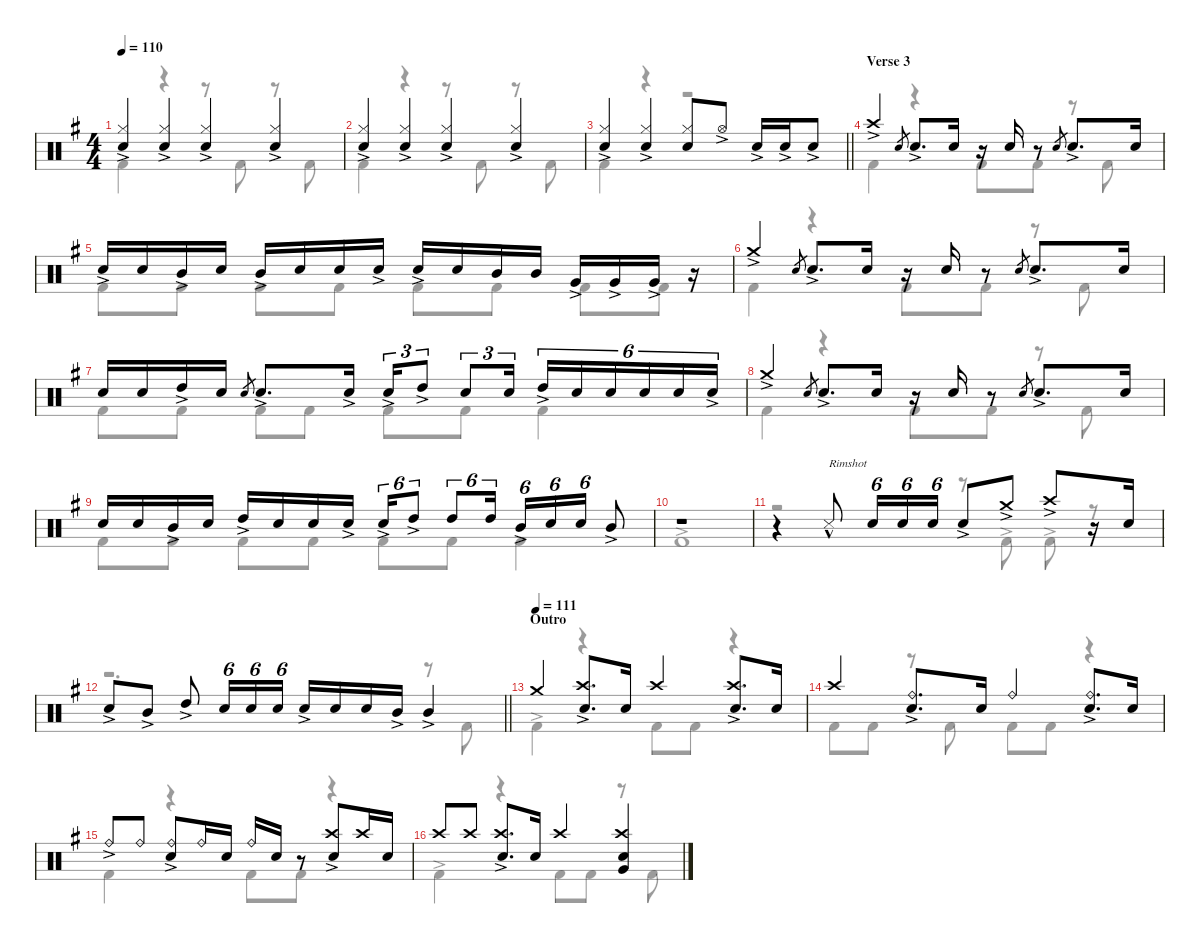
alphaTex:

\defaultSystemsLayout 4
\hideDynamics
\bracketExtendMode nobrackets
\singleTrackTrackNamePolicy hidden
\multiTrackTrackNamePolicy hidden
\firstSystemTrackNameMode fullname
\firstSystemTrackNameOrientation horizontal
\otherSystemsTrackNameOrientation horizontal
\track ("Drums: Mitch Mitchell" "drm.") {defaultSystemsLayout 4 instrument percussion}
\staff {score}
\articulation defaults
\voice
\ts (4 4)
\tempo 110
\clef neutral
\ks g
("Hi-Hat (closed)"{ac acc forcenatural} "Snare (hit) 2"{acc forcenatural}).4{dy mf beam Up} ("Hi-Hat (closed)"{ac acc forcenatural} "Snare (hit) 2"{acc forcenatural}).4{beam Up} ("Hi-Hat (closed)"{ac acc forcenatural} "Snare (hit) 2"{acc forcenatural}).4{beam Up} ("Hi-Hat (closed)"{ac acc forcenatural} "Snare (hit) 2"{acc forcenatural}).4{beam Up} |
("Hi-Hat (closed)"{ac acc forcenatural} "Snare (hit) 2"{acc forcenatural}).4{beam Up} ("Hi-Hat (closed)"{ac acc forcenatural} "Snare (hit) 2"{acc forcenatural}).4{beam Up} ("Hi-Hat (closed)"{ac acc forcenatural} "Snare (hit) 2"{acc forcenatural}).4{beam Up} ("Hi-Hat (closed)"{ac acc forcenatural} "Snare (hit) 2"{acc forcenatural}).4{beam Up} |
\barLineRight lightlight
("Hi-Hat (closed)"{ac acc forcenatural} "Snare (hit) 2"{acc forcenatural}).4{beam Up} ("Hi-Hat (closed)"{ac acc forcenatural} "Snare (hit) 2"{acc forcenatural}).4{beam Up} ("Hi-Hat (closed)"{acc forcenatural} "Snare (hit) 2"{acc forcenatural}).8{beam Up} "Hi-Hat (open)"{ac acc forcenatural}.8{beam Up} "Snare (hit) 2"{ac acc forcenatural}.16{beam Up} "Snare (hit) 2"{ac acc forcenatural}.16{beam Up} "Snare (hit) 2"{ac acc forcenatural}.8{beam Up} |
\section ("" "Verse 3")
"Crash high (hit)"{ac acc forcenatural}.4{beam Up} "Snare (hit) 2"{acc forcenatural}.8{gr beam Up} "Snare (hit) 2"{ac acc forcenatural}.8{d beam Up} "Snare (hit) 2"{acc forcenatural}.16{beam Up} r.16{beam Up} "Snare (hit) 2"{acc forcenatural}.16{beam Up} r.8{beam Up} "Snare (hit) 2"{acc forcenatural}.8{gr beam Up} "Snare (hit) 2"{ac acc forcenatural}.8{d beam Up} "Snare (hit) 2"{acc forcenatural}.16{beam Up} |
"Snare (hit) 2"{ac acc forcenatural}.16{beam Up} "Snare (hit) 2"{acc forcenatural}.16{beam Up} "Mid Tom (hit)"{ac acc forcenatural}.16{beam Up} "Snare (hit) 2"{acc forcenatural}.16{beam Up} "Mid Tom (hit)"{ac acc forcenatural}.16{beam Up} "Snare (hit) 2"{acc forcenatural}.16{beam Up} "Snare (hit) 2"{acc forcenatural}.16{beam Up} "Snare (hit) 2"{ac acc forcenatural}.16{beam Up} "Snare (hit) 2"{ac acc forcenatural}.16{beam Up} "Snare (hit) 2"{acc forcenatural}.16{beam Up} "Mid Tom (hit)"{acc forcenatural}.16{beam Up} "Mid Tom (hit)"{acc forcenatural}.16{beam Up} "Very Low Tom (hit)"{ac acc forcenatural}.16{beam Up} "Very Low Tom (hit)"{ac acc forcenatural}.16{beam Up} "Very Low Tom (hit)"{ac acc forcenatural}.16{beam Up} r.16{beam Up} |
"Crash medium (hit)"{ac acc forcenatural}.4{beam Up} "Snare (hit) 2"{acc forcenatural}.8{gr beam Up} "Snare (hit) 2"{ac acc forcenatural}.8{d beam Up} "Snare (hit) 2"{acc forcenatural}.16{beam Up} r.16{beam Up} "Snare (hit) 2"{acc forcenatural}.16{beam Up} r.8{beam Up} "Snare (hit) 2"{acc forcenatural}.8{gr beam Up} "Snare (hit) 2"{ac acc forcenatural}.8{d beam Up} "Snare (hit) 2"{acc forcenatural}.16{beam Up} |
"Snare (hit) 2"{acc forcenatural}.16{beam Up} "Snare (hit) 2"{acc forcenatural}.16{beam Up} "High Tom (hit)"{ac acc forcenatural}.16{beam Up} "Snare (hit) 2"{acc forcenatural}.16{beam Up} "Snare (hit) 2"{acc forcenatural}.8{gr beam Up} "Snare (hit) 2"{ac acc forcenatural}.8{d beam Up} "Snare (hit) 2"{ac acc forcenatural}.16{beam Up} "Snare (hit) 2"{ac acc forcenatural}.16{tu (3 2) beam Up} "High Tom (hit)"{ac acc forcenatural}.8{tu (3 2) beam Up} "Snare (hit) 2"{acc forcenatural}.8{tu (3 2) beam Up} "Snare (hit) 2"{acc forcenatural}.16{tu (3 2) beam Up} "High Tom (hit)"{ac acc forcenatural}.16{tu (6 4) beam Up} "Snare (hit) 2"{acc forcenatural}.16{tu (6 4) beam Up} "Snare (hit) 2"{acc forcenatural}.16{tu (6 4) beam Up} "Snare (hit) 2"{acc forcenatural}.16{tu (6 4) beam Up} "Snare (hit) 2"{acc forcenatural}.16{tu (6 4) beam Up} "Snare (hit) 2"{ac acc forcenatural}.16{tu (6 4) beam Up} |
"Crash medium (hit)"{ac acc forcenatural}.4{beam Up} "Snare (hit) 2"{acc forcenatural}.8{gr beam Up} "Snare (hit) 2"{ac acc forcenatural}.8{d beam Up} "Snare (hit) 2"{acc forcenatural}.16{beam Up} r.16{beam Up} "Snare (hit) 2"{acc forcenatural}.16{beam Up} r.8{beam Up} "Snare (hit) 2"{acc forcenatural}.8{gr beam Up} "Snare (hit) 2"{ac acc forcenatural}.8{d beam Up} "Snare (hit) 2"{acc forcenatural}.16{beam Up} |
"Snare (hit) 2"{acc forcenatural}.16{beam Up} "Snare (hit) 2"{acc forcenatural}.16{beam Up} "Mid Tom (hit)"{ac acc forcenatural}.16{beam Up} "Snare (hit) 2"{acc forcenatural}.16{beam Up} "High Tom (hit)"{ac acc forcenatural}.16{beam Up} "Snare (hit) 2"{acc forcenatural}.16{beam Up} "Snare (hit) 2"{acc forcenatural}.16{beam Up} "Snare (hit) 2"{ac acc forcenatural}.16{beam Up} "Snare (hit) 2"{ac acc forcenatural}.16{tu (6 4) beam Up} "High Tom (hit)"{ac acc forcenatural}.8{tu (6 4) beam Up} "High Tom (hit)"{acc forcenatural}.8{tu (6 4) beam Up} "High Tom (hit)"{acc forcenatural}.16{tu (6 4) beam Up} "Mid Tom (hit)"{ac acc forcenatural}.16{tu (6 4) beam Up} "Snare (hit) 2"{acc forcenatural}.16{tu (6 4) beam Up} "Snare (hit) 2"{acc forcenatural}.16{tu (6 4) beam Up} "Mid Tom (hit)"{ac acc forcenatural}.8{beam Up} |
r.1{beam Up} |
r.4{beam Up} "Snare (side stick) 3"{hac acc forcenatural}.8{txt "Rimshot" beam Up} "Snare (hit) 2"{acc forcenatural}.16{tu (6 4) beam Up} "Snare (hit) 2"{acc forcenatural}.16{tu (6 4) beam Up} "Snare (hit) 2"{acc forcenatural}.16{tu (6 4) beam Up} "Snare (hit) 2"{ac acc forcenatural}.8{beam Up} "Crash medium (hit)"{ac acc forcenatural}.8{beam Up} "Crash high (hit)"{ac acc forcenatural}.8{beam Up} r.16{beam Up} "Snare (hit) 2"{acc forcenatural}.16{beam Up} |
\barLineRight lightlight "Snare (hit) 2"{ac acc forcenatural}.8{beam Up} "Mid Tom (hit)"{ac acc forcenatural}.8{beam Up} "High Tom (hit)"{ac acc forcenatural}.8{beam Up} "Snare (hit) 2"{acc forcenatural}.16{tu (6 4) beam Up} "Snare (hit) 2"{acc forcenatural}.16{tu (6 4) beam Up} "Snare (hit) 2"{acc forcenatural}.16{tu (6 4) beam Up} "Snare (hit) 2"{ac acc forcenatural}.16{beam Up} "Snare (hit) 2"{acc forcenatural}.16{beam Up} "Snare (hit) 2"{acc forcenatural}.16{beam Up} "Mid Tom (hit)"{ac acc forcenatural}.16{beam Up} "Mid Tom (hit)"{ac acc forcenatural}.4{beam Up}
|
\section ("" "Outro")
\tempo (111)
"Crash medium (hit)"{acc forcenatural}.4{beam Up} ("Crash high (hit)"{acc forcenatural} "Snare (hit) 2"{ac acc forcenatural}).8{d beam Up} "Snare (hit) 2"{acc forcenatural}.16{beam Up} "Crash high (hit)"{acc forcenatural}.4{beam Up} ("Crash high (hit)"{acc forcenatural} "Snare (hit) 2"{ac acc forcenatural}).8{d beam Up} "Snare (hit) 2"{acc forcenatural}.16{beam Up} |
"Crash high (hit)"{acc forcenatural}.4{beam Up} ("Ride (bell)"{acc forcenatural} "Snare (hit) 2"{ac acc forcenatural}).8{d beam Up} "Snare (hit) 2"{acc forcenatural}.16{beam Up} "Ride (bell)"{acc forcenatural}.4{beam Up} ("Ride (bell)"{acc forcenatural} "Snare (hit) 2"{ac acc forcenatural}).8{d beam Up} "Snare (hit) 2"{acc forcenatural}.16{beam Up} |
"Ride (bell)"{ac acc forcenatural}.8{beam Up} "Ride (bell)"{acc forcenatural}.8{beam Up} ("Ride (bell)"{acc forcenatural} "Snare (hit) 2"{ac acc forcenatural}).8{beam Up} "Ride (bell)"{acc forcenatural}.16{beam Up} "Snare (hit) 2"{acc forcenatural}.16{beam Up} "Ride (bell)"{acc forcenatural}.16{beam Up} "Snare (hit) 2"{acc forcenatural}.16{beam Up} r.8{beam Up} ("Crash high (hit)"{acc forcenatural} "Snare (hit) 2"{ac acc forcenatural}).8{beam Up} "Crash high (hit)"{acc forcenatural}.16{beam Up} "Snare (hit) 2"{acc forcenatural}.16{beam Up} |
"Crash high (hit)"{acc forcenatural}.8{beam Up} "Crash high (hit)"{acc forcenatural}.8{beam Up} ("Crash high (hit)"{acc forcenatural} "Snare (hit) 2"{ac acc forcenatural}).8{d beam Up} "Snare (hit) 2"{acc forcenatural}.16{beam Up} "Crash high (hit)"{acc forcenatural}.4{beam Up} ("Crash high (hit)"{acc forcenatural} "Snare (hit) 2"{acc forcenatural} "Very Low Tom (hit)"{acc forcenatural}).4{beam Up}
\voice
\clef neutral
\ottava regular
\simile none
\ks g "Kick (hit) 2"{acc forcenatural}.4{dy mf beam Down}
r.4{beam Down} r.8{beam Down} "Kick (hit) 2"{acc forcenatural}.8{beam Down} r.8{beam Down} "Kick (hit) 2"{acc forcenatural}.8{beam Down} |
"Kick (hit) 2"{acc forcenatural}.4{beam Down} r.4{beam Down} r.8{beam Down} "Kick (hit) 2"{acc forcenatural}.8{beam Down} r.8{beam Down} "Kick (hit) 2"{acc forcenatural}.8{beam Down} |
\barLineRight lightlight "Kick (hit) 2"{acc forcenatural}.4{beam Down}
r.4{beam Down} r.2{beam Down} |
"Kick (hit) 2"{acc forcenatural}.4{beam Down} r.4{beam Down} "Kick (hit) 2"{acc forcenatural}.8{beam Down} "Kick (hit) 2"{acc forcenatural}.8{beam Down} r.8{beam Down} "Kick (hit) 2"{acc forcenatural}.8{beam Down} |
"Kick (hit) 2"{acc forcenatural}.8{beam Down} "Kick (hit) 2"{acc forcenatural}.8{beam Down} "Kick (hit) 2"{acc forcenatural}.8{beam Down} "Kick (hit) 2"{acc forcenatural}.8{beam Down} "Kick (hit) 2"{acc forcenatural}.8{beam Down} "Kick (hit) 2"{acc forcenatural}.8{beam Down} "Kick (hit) 2"{acc forcenatural}.8{beam Down} "Kick (hit) 2"{acc forcenatural}.8{beam Down} |
"Kick (hit) 2"{acc forcenatural}.4{beam Down} r.4{beam Down} "Kick (hit) 2"{acc forcenatural}.8{beam Down} "Kick (hit) 2"{acc forcenatural}.8{beam Down} r.8{beam Down} "Kick (hit) 2"{acc forcenatural}.8{beam Down} |
"Kick (hit) 2"{acc forcenatural}.8{beam Down} "Kick (hit) 2"{acc forcenatural}.8{beam Down} "Kick (hit) 2"{acc forcenatural}.8{beam Down} "Kick (hit) 2"{acc forcenatural}.8{beam Down} "Kick (hit) 2"{acc forcenatural}.8{beam Down} "Kick (hit) 2"{acc forcenatural}.8{beam Down} "Kick (hit) 2"{acc forcenatural}.4{beam Down} |
"Kick (hit) 2"{acc forcenatural}.4{beam Down} r.4{beam Down} "Kick (hit) 2"{acc forcenatural}.8{beam Down} "Kick (hit) 2"{acc forcenatural}.8{beam Down} r.8{beam Down} "Kick (hit) 2"{acc forcenatural}.8{beam Down} |
"Kick (hit) 2"{acc forcenatural}.8{beam Down} "Kick (hit) 2"{acc forcenatural}.8{beam Down} "Kick (hit) 2"{acc forcenatural}.8{beam Down} "Kick (hit) 2"{acc forcenatural}.8{beam Down} "Kick (hit) 2"{acc forcenatural}.8{beam Down} "Kick (hit) 2"{acc forcenatural}.8{beam Down} "Kick (hit) 2"{acc forcenatural}.4{beam Down} |
"Kick (hit) 2"{ac acc forcenatural}.1{beam Down} |
r.2{beam Down} r.8{beam Down} "Kick (hit) 2"{ac acc forcenatural}.8{beam Down} "Kick (hit) 2"{ac acc forcenatural}.8{beam Down} r.8{beam Down} |
\barLineRight lightlight
r.2{d beam Down} r.8{beam Down} "Kick (hit) 2"{acc forcenatural}.8{beam Down} |
"Kick (hit) 2"{ac acc forcenatural}.4{beam Down} r.4{beam Down} "Kick (hit) 2"{acc forcenatural}.8{beam Down} "Kick (hit) 2"{acc forcenatural}.8{beam Down} r.4{beam Down} |
"Kick (hit) 2"{acc forcenatural}.8{beam Down} "Kick (hit) 2"{acc forcenatural}.8{beam Down} r.8{beam Down} "Kick (hit) 2"{acc forcenatural}.8{beam Down} "Kick (hit) 2"{acc forcenatural}.8{beam Down} "Kick (hit) 2"{acc forcenatural}.8{beam Down} r.4{beam Down} |
"Kick (hit) 2"{acc forcenatural}.4{beam Down} r.4{beam Down} "Kick (hit) 2"{acc forcenatural}.8{beam Down} "Kick (hit) 2"{acc forcenatural}.8{beam Down} r.4{beam Down} |
"Kick (hit) 2"{ac acc forcenatural}.4{beam Down} r.4{beam Down} "Kick (hit) 2"{acc forcenatural}.8{beam Down} "Kick (hit) 2"{acc forcenatural}.8{beam Down} r.8{beam Down} "Kick (hit) 2"{acc forcenatural}.8{beam Down}
